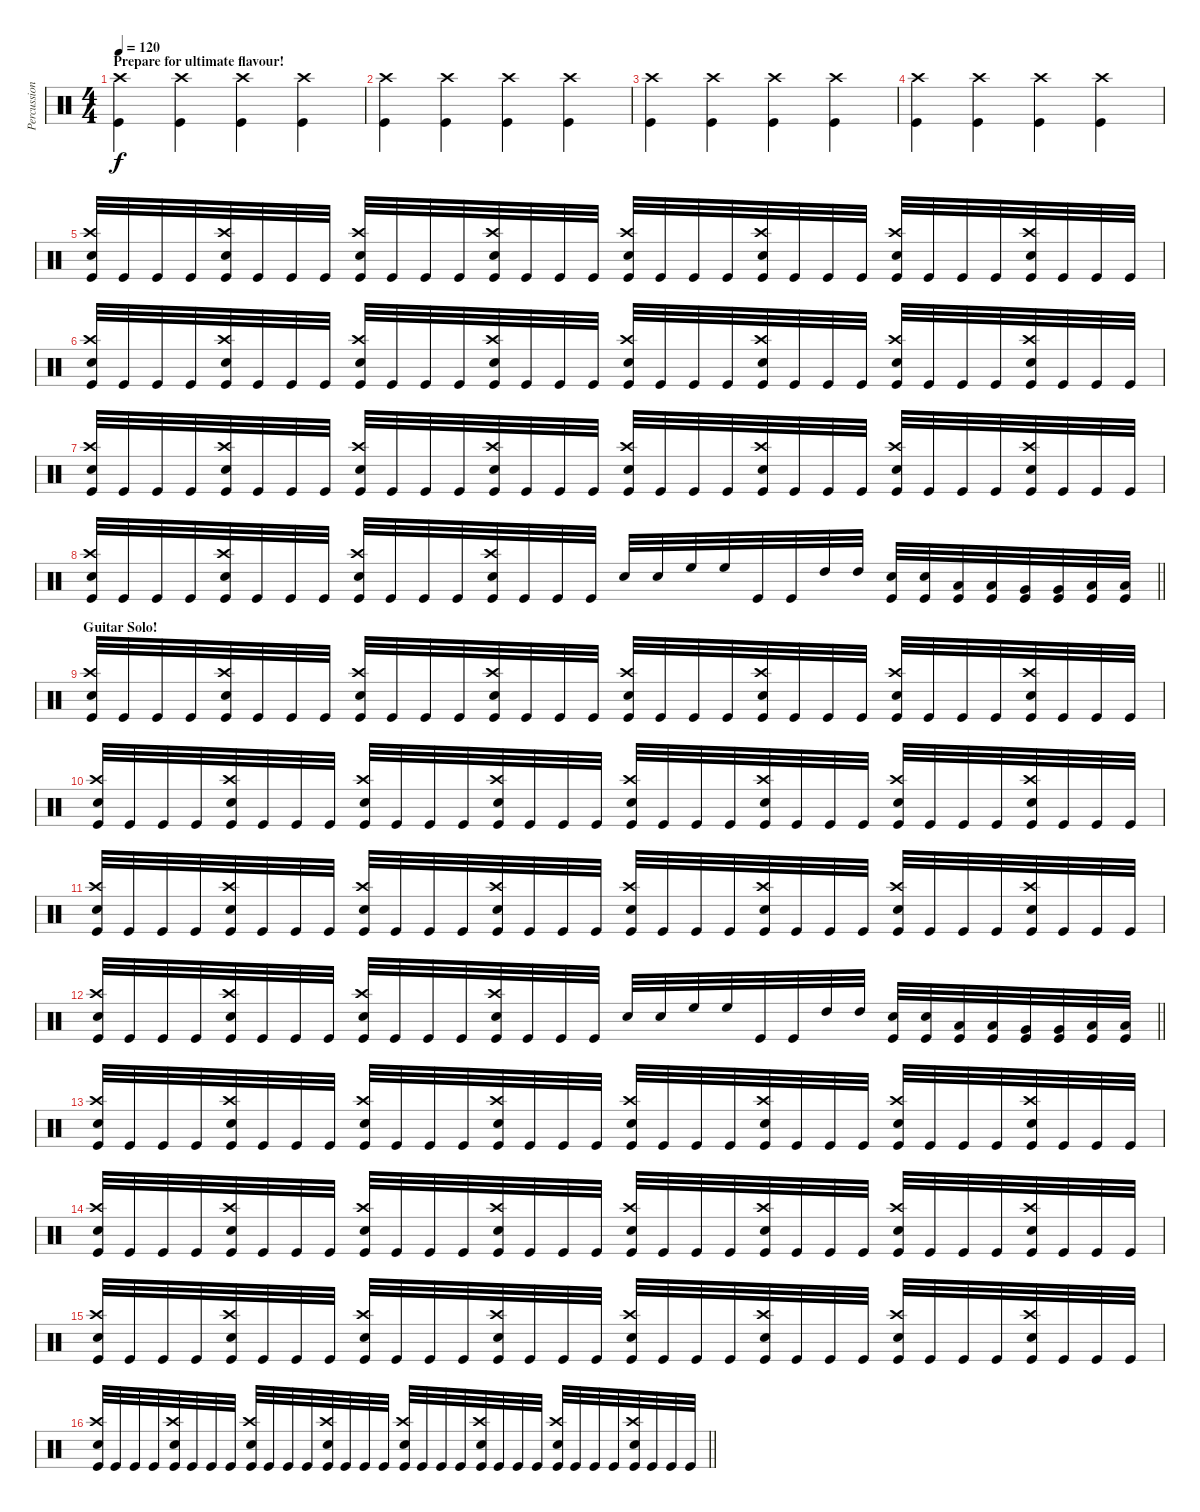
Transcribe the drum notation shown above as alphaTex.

\track ("Percussion" "Percussion") {instrument percussion}
\staff {score}
\articulation defaults
\ts (4 4)
\section ("" "Prepare for ultimate flavour!")
\tempo 120
\clef neutral
\ks c
("Kick (hit)" "Crash high (hit)").4{dy f} ("Kick (hit)" "Crash high (hit)").4 ("Kick (hit)" "Crash high (hit)").4 ("Kick (hit)" "Crash high (hit)").4 |
("Kick (hit)" "Crash high (hit)").4 ("Crash high (hit)" "Kick (hit)").4 ("Crash high (hit)" "Kick (hit)").4 ("Crash high (hit)" "Kick (hit)").4 |
("Kick (hit)" "Crash high (hit)").4 ("Kick (hit)" "Crash high (hit)").4 ("Kick (hit)" "Crash high (hit)").4 ("Kick (hit)" "Crash high (hit)").4 |
("Kick (hit)" "Crash high (hit)").4 ("Crash high (hit)" "Kick (hit)").4 ("Crash high (hit)" "Kick (hit)").4 ("Crash high (hit)" "Kick (hit)").4 |
("Kick (hit)" "Crash high (hit)" "Snare (hit) 2").32 "Kick (hit)".32 "Kick (hit)".32 "Kick (hit)".32 ("Kick (hit)" "Crash high (hit)" "Snare (hit) 2").32 "Kick (hit)".32 "Kick (hit)".32 "Kick (hit)".32 ("Kick (hit)" "Crash high (hit)" "Snare (hit) 2").32 "Kick (hit)".32 "Kick (hit)".32 "Kick (hit)".32 ("Kick (hit)" "Crash high (hit)" "Snare (hit) 2").32 "Kick (hit)".32 "Kick (hit)".32 "Kick (hit)".32 ("Kick (hit)" "Crash high (hit)" "Snare (hit) 2").32 "Kick (hit)".32 "Kick (hit)".32 "Kick (hit)".32 ("Kick (hit)" "Crash high (hit)" "Snare (hit) 2").32 "Kick (hit)".32 "Kick (hit)".32 "Kick (hit)".32 ("Kick (hit)" "Crash high (hit)" "Snare (hit) 2").32 "Kick (hit)".32 "Kick (hit)".32 "Kick (hit)".32 ("Kick (hit)" "Crash high (hit)" "Snare (hit) 2").32 "Kick (hit)".32 "Kick (hit)".32 "Kick (hit)".32 |
("Kick (hit)" "Crash high (hit)" "Snare (hit) 2").32 "Kick (hit)".32 "Kick (hit)".32 "Kick (hit)".32 ("Kick (hit)" "Crash high (hit)" "Snare (hit) 2").32 "Kick (hit)".32 "Kick (hit)".32 "Kick (hit)".32 ("Kick (hit)" "Crash high (hit)" "Snare (hit) 2").32 "Kick (hit)".32 "Kick (hit)".32 "Kick (hit)".32 ("Kick (hit)" "Crash high (hit)" "Snare (hit) 2").32 "Kick (hit)".32 "Kick (hit)".32 "Kick (hit)".32 ("Kick (hit)" "Crash high (hit)" "Snare (hit) 2").32 "Kick (hit)".32 "Kick (hit)".32 "Kick (hit)".32 ("Kick (hit)" "Crash high (hit)" "Snare (hit) 2").32 "Kick (hit)".32 "Kick (hit)".32 "Kick (hit)".32 ("Kick (hit)" "Crash high (hit)" "Snare (hit) 2").32 "Kick (hit)".32 "Kick (hit)".32 "Kick (hit)".32 ("Kick (hit)" "Crash high (hit)" "Snare (hit) 2").32 "Kick (hit)".32 "Kick (hit)".32 "Kick (hit)".32 |
("Kick (hit)" "Crash high (hit)" "Snare (hit) 2").32 "Kick (hit)".32 "Kick (hit)".32 "Kick (hit)".32 ("Kick (hit)" "Crash high (hit)" "Snare (hit) 2").32 "Kick (hit)".32 "Kick (hit)".32 "Kick (hit)".32 ("Kick (hit)" "Crash high (hit)" "Snare (hit) 2").32 "Kick (hit)".32 "Kick (hit)".32 "Kick (hit)".32 ("Kick (hit)" "Crash high (hit)" "Snare (hit) 2").32 "Kick (hit)".32 "Kick (hit)".32 "Kick (hit)".32 ("Kick (hit)" "Crash high (hit)" "Snare (hit) 2").32 "Kick (hit)".32 "Kick (hit)".32 "Kick (hit)".32 ("Kick (hit)" "Crash high (hit)" "Snare (hit) 2").32 "Kick (hit)".32 "Kick (hit)".32 "Kick (hit)".32 ("Kick (hit)" "Crash high (hit)" "Snare (hit) 2").32 "Kick (hit)".32 "Kick (hit)".32 "Kick (hit)".32 ("Kick (hit)" "Crash high (hit)" "Snare (hit) 2").32 "Kick (hit)".32 "Kick (hit)".32 "Kick (hit)".32 |
\barLineRight lightlight
("Kick (hit)" "Crash high (hit)" "Snare (hit) 2").32 "Kick (hit)".32 "Kick (hit)".32 "Kick (hit)".32 ("Kick (hit)" "Crash high (hit)" "Snare (hit) 2").32 "Kick (hit)".32 "Kick (hit)".32 "Kick (hit)".32 ("Kick (hit)" "Crash high (hit)" "Snare (hit) 2").32 "Kick (hit)".32 "Kick (hit)".32 "Kick (hit)".32 ("Kick (hit)" "Crash high (hit)" "Snare (hit) 2").32 "Kick (hit)".32 "Kick (hit)".32 "Kick (hit)".32 "Snare (hit) 2".32 "Snare (hit) 2".32 "High Floor Tom (hit)".32 "High Floor Tom (hit)".32 "Kick (hit)".32 "Kick (hit)".32 "High Tom (hit)".32 "High Tom (hit)".32 ("Kick (hit)" "Snare (hit) 2").32 ("Snare (hit) 2" "Kick (hit)").32 ("Low Tom (hit)" "Kick (hit)").32 ("Low Tom (hit)" "Kick (hit)").32 ("Kick (hit)" "Very Low Tom (hit)").32 ("Very Low Tom (hit)" "Kick (hit)").32 ("Low Floor Tom (hit)" "Kick (hit)").32 ("Low Floor Tom (hit)" "Kick (hit)").32 |
\section ("" "Guitar Solo!")
("Kick (hit)" "Crash high (hit)" "Snare (hit) 2").32 "Kick (hit)".32 "Kick (hit)".32 "Kick (hit)".32 ("Kick (hit)" "Crash high (hit)" "Snare (hit) 2").32 "Kick (hit)".32 "Kick (hit)".32 "Kick (hit)".32 ("Kick (hit)" "Crash high (hit)" "Snare (hit) 2").32 "Kick (hit)".32 "Kick (hit)".32 "Kick (hit)".32 ("Kick (hit)" "Crash high (hit)" "Snare (hit) 2").32 "Kick (hit)".32 "Kick (hit)".32 "Kick (hit)".32 ("Kick (hit)" "Crash high (hit)" "Snare (hit) 2").32 "Kick (hit)".32 "Kick (hit)".32 "Kick (hit)".32 ("Kick (hit)" "Crash high (hit)" "Snare (hit) 2").32 "Kick (hit)".32 "Kick (hit)".32 "Kick (hit)".32 ("Kick (hit)" "Crash high (hit)" "Snare (hit) 2").32 "Kick (hit)".32 "Kick (hit)".32 "Kick (hit)".32 ("Kick (hit)" "Crash high (hit)" "Snare (hit) 2").32 "Kick (hit)".32 "Kick (hit)".32 "Kick (hit)".32 |
("Kick (hit)" "Crash high (hit)" "Snare (hit) 2").32 "Kick (hit)".32 "Kick (hit)".32 "Kick (hit)".32 ("Kick (hit)" "Crash high (hit)" "Snare (hit) 2").32 "Kick (hit)".32 "Kick (hit)".32 "Kick (hit)".32 ("Kick (hit)" "Crash high (hit)" "Snare (hit) 2").32 "Kick (hit)".32 "Kick (hit)".32 "Kick (hit)".32 ("Kick (hit)" "Crash high (hit)" "Snare (hit) 2").32 "Kick (hit)".32 "Kick (hit)".32 "Kick (hit)".32 ("Kick (hit)" "Crash high (hit)" "Snare (hit) 2").32 "Kick (hit)".32 "Kick (hit)".32 "Kick (hit)".32 ("Kick (hit)" "Crash high (hit)" "Snare (hit) 2").32 "Kick (hit)".32 "Kick (hit)".32 "Kick (hit)".32 ("Kick (hit)" "Crash high (hit)" "Snare (hit) 2").32 "Kick (hit)".32 "Kick (hit)".32 "Kick (hit)".32 ("Kick (hit)" "Crash high (hit)" "Snare (hit) 2").32 "Kick (hit)".32 "Kick (hit)".32 "Kick (hit)".32 |
("Kick (hit)" "Crash high (hit)" "Snare (hit) 2").32 "Kick (hit)".32 "Kick (hit)".32 "Kick (hit)".32 ("Kick (hit)" "Crash high (hit)" "Snare (hit) 2").32 "Kick (hit)".32 "Kick (hit)".32 "Kick (hit)".32 ("Kick (hit)" "Crash high (hit)" "Snare (hit) 2").32 "Kick (hit)".32 "Kick (hit)".32 "Kick (hit)".32 ("Kick (hit)" "Crash high (hit)" "Snare (hit) 2").32 "Kick (hit)".32 "Kick (hit)".32 "Kick (hit)".32 ("Kick (hit)" "Crash high (hit)" "Snare (hit) 2").32 "Kick (hit)".32 "Kick (hit)".32 "Kick (hit)".32 ("Kick (hit)" "Crash high (hit)" "Snare (hit) 2").32 "Kick (hit)".32 "Kick (hit)".32 "Kick (hit)".32 ("Kick (hit)" "Crash high (hit)" "Snare (hit) 2").32 "Kick (hit)".32 "Kick (hit)".32 "Kick (hit)".32 ("Kick (hit)" "Crash high (hit)" "Snare (hit) 2").32 "Kick (hit)".32 "Kick (hit)".32 "Kick (hit)".32 |
\barLineRight lightlight
("Kick (hit)" "Crash high (hit)" "Snare (hit) 2").32 "Kick (hit)".32 "Kick (hit)".32 "Kick (hit)".32 ("Kick (hit)" "Crash high (hit)" "Snare (hit) 2").32 "Kick (hit)".32 "Kick (hit)".32 "Kick (hit)".32 ("Kick (hit)" "Crash high (hit)" "Snare (hit) 2").32 "Kick (hit)".32 "Kick (hit)".32 "Kick (hit)".32 ("Kick (hit)" "Crash high (hit)" "Snare (hit) 2").32 "Kick (hit)".32 "Kick (hit)".32 "Kick (hit)".32 "Snare (hit) 2".32 "Snare (hit) 2".32 "High Floor Tom (hit)".32 "High Floor Tom (hit)".32 "Kick (hit)".32 "Kick (hit)".32 "High Tom (hit)".32 "High Tom (hit)".32 ("Kick (hit)" "Snare (hit) 2").32 ("Snare (hit) 2" "Kick (hit)").32 ("Low Tom (hit)" "Kick (hit)").32 ("Low Tom (hit)" "Kick (hit)").32 ("Kick (hit)" "Very Low Tom (hit)").32 ("Very Low Tom (hit)" "Kick (hit)").32 ("Low Floor Tom (hit)" "Kick (hit)").32 ("Low Floor Tom (hit)" "Kick (hit)").32 |
("Kick (hit)" "Crash high (hit)" "Snare (hit) 2").32 "Kick (hit)".32 "Kick (hit)".32 "Kick (hit)".32 ("Kick (hit)" "Crash high (hit)" "Snare (hit) 2").32 "Kick (hit)".32 "Kick (hit)".32 "Kick (hit)".32 ("Kick (hit)" "Crash high (hit)" "Snare (hit) 2").32 "Kick (hit)".32 "Kick (hit)".32 "Kick (hit)".32 ("Kick (hit)" "Crash high (hit)" "Snare (hit) 2").32 "Kick (hit)".32 "Kick (hit)".32 "Kick (hit)".32 ("Kick (hit)" "Crash high (hit)" "Snare (hit) 2").32 "Kick (hit)".32 "Kick (hit)".32 "Kick (hit)".32 ("Kick (hit)" "Crash high (hit)" "Snare (hit) 2").32 "Kick (hit)".32 "Kick (hit)".32 "Kick (hit)".32 ("Kick (hit)" "Crash high (hit)" "Snare (hit) 2").32 "Kick (hit)".32 "Kick (hit)".32 "Kick (hit)".32 ("Kick (hit)" "Crash high (hit)" "Snare (hit) 2").32 "Kick (hit)".32 "Kick (hit)".32 "Kick (hit)".32 |
("Kick (hit)" "Crash high (hit)" "Snare (hit) 2").32 "Kick (hit)".32 "Kick (hit)".32 "Kick (hit)".32 ("Kick (hit)" "Crash high (hit)" "Snare (hit) 2").32 "Kick (hit)".32 "Kick (hit)".32 "Kick (hit)".32 ("Kick (hit)" "Crash high (hit)" "Snare (hit) 2").32 "Kick (hit)".32 "Kick (hit)".32 "Kick (hit)".32 ("Kick (hit)" "Crash high (hit)" "Snare (hit) 2").32 "Kick (hit)".32 "Kick (hit)".32 "Kick (hit)".32 ("Kick (hit)" "Crash high (hit)" "Snare (hit) 2").32 "Kick (hit)".32 "Kick (hit)".32 "Kick (hit)".32 ("Kick (hit)" "Crash high (hit)" "Snare (hit) 2").32 "Kick (hit)".32 "Kick (hit)".32 "Kick (hit)".32 ("Kick (hit)" "Crash high (hit)" "Snare (hit) 2").32 "Kick (hit)".32 "Kick (hit)".32 "Kick (hit)".32 ("Kick (hit)" "Crash high (hit)" "Snare (hit) 2").32 "Kick (hit)".32 "Kick (hit)".32 "Kick (hit)".32 |
("Kick (hit)" "Crash high (hit)" "Snare (hit) 2").32 "Kick (hit)".32 "Kick (hit)".32 "Kick (hit)".32 ("Kick (hit)" "Crash high (hit)" "Snare (hit) 2").32 "Kick (hit)".32 "Kick (hit)".32 "Kick (hit)".32 ("Kick (hit)" "Crash high (hit)" "Snare (hit) 2").32 "Kick (hit)".32 "Kick (hit)".32 "Kick (hit)".32 ("Kick (hit)" "Crash high (hit)" "Snare (hit) 2").32 "Kick (hit)".32 "Kick (hit)".32 "Kick (hit)".32 ("Kick (hit)" "Crash high (hit)" "Snare (hit) 2").32 "Kick (hit)".32 "Kick (hit)".32 "Kick (hit)".32 ("Kick (hit)" "Crash high (hit)" "Snare (hit) 2").32 "Kick (hit)".32 "Kick (hit)".32 "Kick (hit)".32 ("Kick (hit)" "Crash high (hit)" "Snare (hit) 2").32 "Kick (hit)".32 "Kick (hit)".32 "Kick (hit)".32 ("Kick (hit)" "Crash high (hit)" "Snare (hit) 2").32 "Kick (hit)".32 "Kick (hit)".32 "Kick (hit)".32 |
\barLineRight lightlight
("Kick (hit)" "Crash high (hit)" "Snare (hit) 2").32 "Kick (hit)".32 "Kick (hit)".32 "Kick (hit)".32 ("Kick (hit)" "Crash high (hit)" "Snare (hit) 2").32 "Kick (hit)".32 "Kick (hit)".32 "Kick (hit)".32 ("Kick (hit)" "Crash high (hit)" "Snare (hit) 2").32 "Kick (hit)".32 "Kick (hit)".32 "Kick (hit)".32 ("Kick (hit)" "Crash high (hit)" "Snare (hit) 2").32 "Kick (hit)".32 "Kick (hit)".32 "Kick (hit)".32 ("Kick (hit)" "Crash high (hit)" "Snare (hit) 2").32 "Kick (hit)".32 "Kick (hit)".32 "Kick (hit)".32 ("Kick (hit)" "Crash high (hit)" "Snare (hit) 2").32 "Kick (hit)".32 "Kick (hit)".32 "Kick (hit)".32 ("Kick (hit)" "Crash high (hit)" "Snare (hit) 2").32 "Kick (hit)".32 "Kick (hit)".32 "Kick (hit)".32 ("Kick (hit)" "Crash high (hit)" "Snare (hit) 2").32 "Kick (hit)".32 "Kick (hit)".32 "Kick (hit)".32
